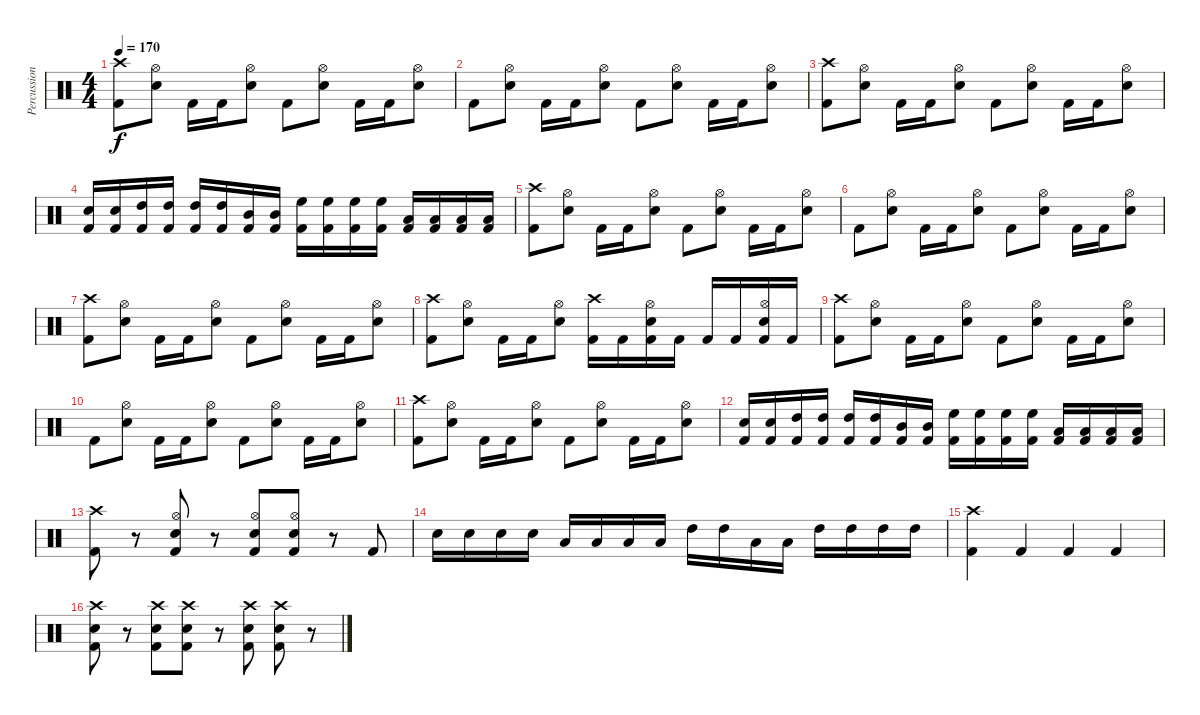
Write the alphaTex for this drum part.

\track ("Percussion" "Percussion") {instrument percussion}
\staff {score}
\articulation defaults
\ts (4 4)
\tempo 170
\clef neutral
\ks c
("Crash high (hit)" "Kick (hit) 2").8{dy f} ("Hi-Hat (open)" "Snare (hit) 2").8 "Kick (hit) 2".16 "Kick (hit) 2".16 ("Hi-Hat (open)" "Snare (hit) 2").8 "Kick (hit) 2".8 ("Hi-Hat (open)" "Snare (hit) 2").8 "Kick (hit) 2".16 "Kick (hit) 2".16 ("Hi-Hat (open)" "Snare (hit) 2").8 |
"Kick (hit) 2".8 ("Hi-Hat (open)" "Snare (hit) 2").8 "Kick (hit) 2".16 "Kick (hit) 2".16 ("Hi-Hat (open)" "Snare (hit) 2").8 "Kick (hit) 2".8 ("Hi-Hat (open)" "Snare (hit) 2").8 "Kick (hit) 2".16 "Kick (hit) 2".16 ("Hi-Hat (open)" "Snare (hit) 2").8 |
("Crash high (hit)" "Kick (hit) 2").8 ("Hi-Hat (open)" "Snare (hit) 2").8 "Kick (hit) 2".16 "Kick (hit) 2".16 ("Hi-Hat (open)" "Snare (hit) 2").8 "Kick (hit) 2".8 ("Hi-Hat (open)" "Snare (hit) 2").8 "Kick (hit) 2".16 "Kick (hit) 2".16 ("Hi-Hat (open)" "Snare (hit) 2").8 |
("Snare (hit) 2" "Kick (hit) 2").16 ("Snare (hit) 2" "Kick (hit) 2").16 ("High Tom (hit)" "Kick (hit) 2").16 ("High Tom (hit)" "Kick (hit) 2").16 ("High Tom (hit)" "Kick (hit) 2").16 ("High Tom (hit)" "Kick (hit) 2").16 ("Mid Tom (hit)" "Kick (hit) 2").16 ("Mid Tom (hit)" "Kick (hit) 2").16 ("High Floor Tom (hit)" "Kick (hit) 2").16 ("High Floor Tom (hit)" "Kick (hit) 2").16 ("High Floor Tom (hit)" "Kick (hit) 2").16 ("High Floor Tom (hit)" "Kick (hit) 2").16 ("Low Tom (hit)" "Kick (hit) 2").16 ("Low Tom (hit)" "Kick (hit) 2").16 ("Low Tom (hit)" "Kick (hit) 2").16 ("Low Tom (hit)" "Kick (hit) 2").16 |
("Crash high (hit)" "Kick (hit) 2").8 ("Hi-Hat (open)" "Snare (hit) 2").8 "Kick (hit) 2".16 "Kick (hit) 2".16 ("Hi-Hat (open)" "Snare (hit) 2").8 "Kick (hit) 2".8 ("Hi-Hat (open)" "Snare (hit) 2").8 "Kick (hit) 2".16 "Kick (hit) 2".16 ("Hi-Hat (open)" "Snare (hit) 2").8 |
"Kick (hit) 2".8 ("Hi-Hat (open)" "Snare (hit) 2").8 "Kick (hit) 2".16 "Kick (hit) 2".16 ("Hi-Hat (open)" "Snare (hit) 2").8 "Kick (hit) 2".8 ("Hi-Hat (open)" "Snare (hit) 2").8 "Kick (hit) 2".16 "Kick (hit) 2".16 ("Hi-Hat (open)" "Snare (hit) 2").8 |
("Crash high (hit)" "Kick (hit) 2").8 ("Hi-Hat (open)" "Snare (hit) 2").8 "Kick (hit) 2".16 "Kick (hit) 2".16 ("Hi-Hat (open)" "Snare (hit) 2").8 "Kick (hit) 2".8 ("Hi-Hat (open)" "Snare (hit) 2").8 "Kick (hit) 2".16 "Kick (hit) 2".16 ("Hi-Hat (open)" "Snare (hit) 2").8 |
("Crash high (hit)" "Kick (hit) 2").8 ("Hi-Hat (open)" "Snare (hit) 2").8 "Kick (hit) 2".16 "Kick (hit) 2".16 ("Hi-Hat (open)" "Snare (hit) 2").8 ("Crash high (hit)" "Kick (hit) 2").16 "Kick (hit) 2".16 ("Hi-Hat (open)" "Snare (hit) 2" "Kick (hit) 2").16 "Kick (hit) 2".16 "Kick (hit) 2".16 "Kick (hit) 2".16 ("Hi-Hat (open)" "Snare (hit) 2" "Kick (hit) 2").16 "Kick (hit) 2".16 |
("Crash high (hit)" "Kick (hit) 2").8 ("Hi-Hat (open)" "Snare (hit) 2").8 "Kick (hit) 2".16 "Kick (hit) 2".16 ("Hi-Hat (open)" "Snare (hit) 2").8 "Kick (hit) 2".8 ("Hi-Hat (open)" "Snare (hit) 2").8 "Kick (hit) 2".16 "Kick (hit) 2".16 ("Hi-Hat (open)" "Snare (hit) 2").8 |
"Kick (hit) 2".8 ("Hi-Hat (open)" "Snare (hit) 2").8 "Kick (hit) 2".16 "Kick (hit) 2".16 ("Hi-Hat (open)" "Snare (hit) 2").8 "Kick (hit) 2".8 ("Hi-Hat (open)" "Snare (hit) 2").8 "Kick (hit) 2".16 "Kick (hit) 2".16 ("Hi-Hat (open)" "Snare (hit) 2").8 |
("Crash high (hit)" "Kick (hit) 2").8 ("Hi-Hat (open)" "Snare (hit) 2").8 "Kick (hit) 2".16 "Kick (hit) 2".16 ("Hi-Hat (open)" "Snare (hit) 2").8 "Kick (hit) 2".8 ("Hi-Hat (open)" "Snare (hit) 2").8 "Kick (hit) 2".16 "Kick (hit) 2".16 ("Hi-Hat (open)" "Snare (hit) 2").8 |
("Snare (hit) 2" "Kick (hit) 2").16 ("Snare (hit) 2" "Kick (hit) 2").16 ("High Tom (hit)" "Kick (hit) 2").16 ("High Tom (hit)" "Kick (hit) 2").16 ("High Tom (hit)" "Kick (hit) 2").16 ("High Tom (hit)" "Kick (hit) 2").16 ("Mid Tom (hit)" "Kick (hit) 2").16 ("Mid Tom (hit)" "Kick (hit) 2").16 ("High Floor Tom (hit)" "Kick (hit) 2").16 ("High Floor Tom (hit)" "Kick (hit) 2").16 ("High Floor Tom (hit)" "Kick (hit) 2").16 ("High Floor Tom (hit)" "Kick (hit) 2").16 ("Low Tom (hit)" "Kick (hit) 2").16 ("Low Tom (hit)" "Kick (hit) 2").16 ("Low Tom (hit)" "Kick (hit) 2").16 ("Low Tom (hit)" "Kick (hit) 2").16 |
("Crash high (hit)" "Kick (hit) 2").8 r.8 ("Hi-Hat (open)" "Snare (hit) 2" "Kick (hit) 2").8 r.8 ("Hi-Hat (open)" "Snare (hit) 2" "Kick (hit) 2").8 ("Hi-Hat (open)" "Snare (hit) 2" "Kick (hit) 2").8 r.8 "Kick (hit) 2".8 |
"Snare (hit) 2".16 "Snare (hit) 2".16 "Snare (hit) 2".16 "Snare (hit) 2".16 "Low Tom (hit)".16 "Low Tom (hit)".16 "Low Tom (hit)".16 "Low Tom (hit)".16 "High Tom (hit)".16 "High Tom (hit)".16 "Low Tom (hit)".16 "Low Tom (hit)".16 "High Tom (hit)".16 "High Tom (hit)".16 "High Tom (hit)".16 "High Tom (hit)".16 |
("Crash high (hit)" "Kick (hit) 2").4 "Kick (hit) 2".4 "Kick (hit) 2".4 "Kick (hit) 2".4 |
("Crash high (hit)" "Snare (hit) 2" "Kick (hit) 2").8 r.8 ("Crash high (hit)" "Snare (hit) 2" "Kick (hit) 2").8 ("Crash high (hit)" "Snare (hit) 2" "Kick (hit) 2").8 r.8 ("Crash high (hit)" "Snare (hit) 2" "Kick (hit) 2").8 ("Crash high (hit)" "Snare (hit) 2" "Kick (hit) 2").8 r.8
